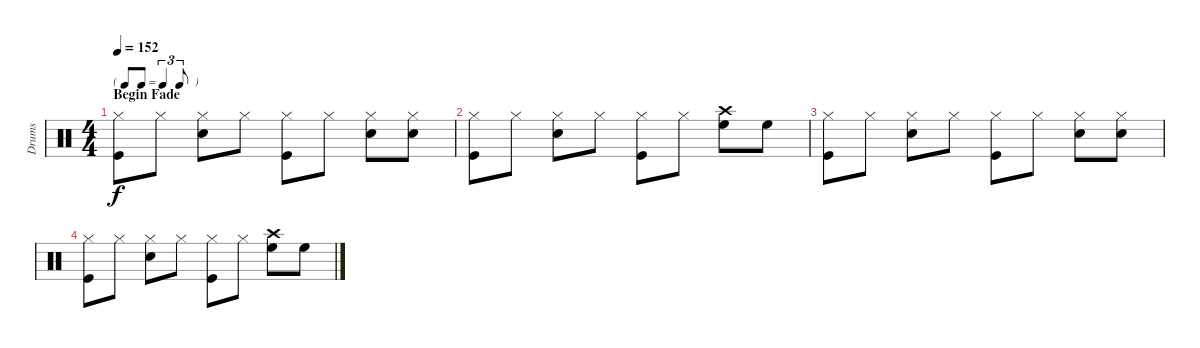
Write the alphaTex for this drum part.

\track ("Drums" "Drums") {instrument percussion}
\staff {score}
\articulation defaults
\ts (4 4)
\tf triplet8th
\section ("" "Begin Fade")
\tempo 152
\clef neutral
\ks c
("Hi-Hat (closed)" "Kick (hit)").8{dy f volume 6} "Hi-Hat (closed)".8 ("Hi-Hat (closed)" "Snare (hit) 2").8 "Hi-Hat (closed)".8 ("Hi-Hat (closed)" "Kick (hit)").8 "Hi-Hat (closed)".8 ("Hi-Hat (closed)" "Snare (hit) 2").8 ("Hi-Hat (closed)" "Snare (hit) 2").8 |
("Hi-Hat (closed)" "Kick (hit)").8 "Hi-Hat (closed)".8 ("Hi-Hat (closed)" "Snare (hit) 2").8 "Hi-Hat (closed)".8 ("Hi-Hat (closed)" "Kick (hit)").8 "Hi-Hat (closed)".8 ("Crash high (hit)" "High Floor Tom (hit)").8 "High Floor Tom (hit)".8 |
("Hi-Hat (closed)" "Kick (hit)").8{volume 3} "Hi-Hat (closed)".8 ("Hi-Hat (closed)" "Snare (hit) 2").8 "Hi-Hat (closed)".8 ("Hi-Hat (closed)" "Kick (hit)").8 "Hi-Hat (closed)".8 ("Hi-Hat (closed)" "Snare (hit) 2").8 ("Hi-Hat (closed)" "Snare (hit) 2").8 |
("Hi-Hat (closed)" "Kick (hit)").8 "Hi-Hat (closed)".8 ("Hi-Hat (closed)" "Snare (hit) 2").8 "Hi-Hat (closed)".8 ("Hi-Hat (closed)" "Kick (hit)").8 "Hi-Hat (closed)".8 ("Crash high (hit)" "High Floor Tom (hit)").8 "High Floor Tom (hit)".8
